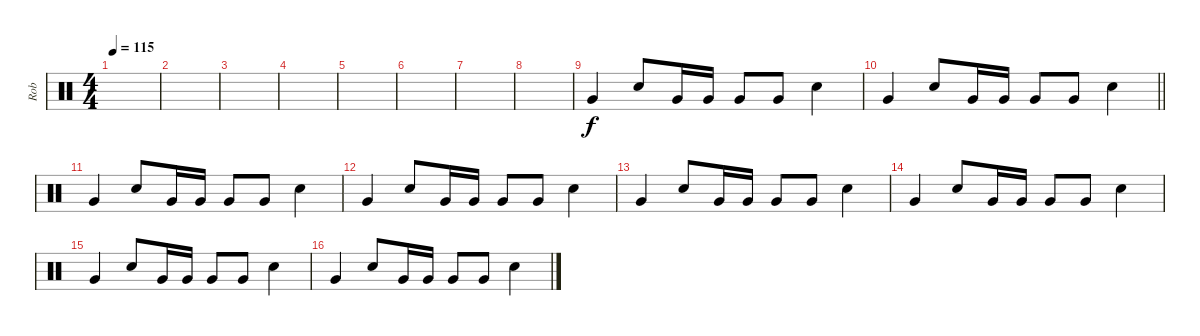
\track ("Rob" "Rob") {instrument percussion}
\staff {score}
\articulation defaults
\ts (4 4)
\tempo 115
\clef neutral
\ks c
|
|
|
|
|
|
|
|
"Very Low Tom (hit)".4 "Snare (hit) 2".8 "Very Low Tom (hit)".16 "Very Low Tom (hit)".16 "Very Low Tom (hit)".8 "Very Low Tom (hit)".8 "Snare (hit) 2".4 |
\barLineRight lightlight "Very Low Tom (hit)".4 "Snare (hit) 2".8 "Very Low Tom (hit)".16 "Very Low Tom (hit)".16 "Very Low Tom (hit)".8 "Very Low Tom (hit)".8 "Snare (hit) 2".4
|
"Very Low Tom (hit)".4 "Snare (hit) 2".8 "Very Low Tom (hit)".16 "Very Low Tom (hit)".16 "Very Low Tom (hit)".8 "Very Low Tom (hit)".8 "Snare (hit) 2".4 |
"Very Low Tom (hit)".4 "Snare (hit) 2".8 "Very Low Tom (hit)".16 "Very Low Tom (hit)".16 "Very Low Tom (hit)".8 "Very Low Tom (hit)".8 "Snare (hit) 2".4 |
"Very Low Tom (hit)".4 "Snare (hit) 2".8 "Very Low Tom (hit)".16 "Very Low Tom (hit)".16 "Very Low Tom (hit)".8 "Very Low Tom (hit)".8 "Snare (hit) 2".4 |
"Very Low Tom (hit)".4 "Snare (hit) 2".8 "Very Low Tom (hit)".16 "Very Low Tom (hit)".16 "Very Low Tom (hit)".8 "Very Low Tom (hit)".8 "Snare (hit) 2".4 |
"Very Low Tom (hit)".4 "Snare (hit) 2".8 "Very Low Tom (hit)".16 "Very Low Tom (hit)".16 "Very Low Tom (hit)".8 "Very Low Tom (hit)".8 "Snare (hit) 2".4 |
"Very Low Tom (hit)".4 "Snare (hit) 2".8 "Very Low Tom (hit)".16 "Very Low Tom (hit)".16 "Very Low Tom (hit)".8 "Very Low Tom (hit)".8 "Snare (hit) 2".4
